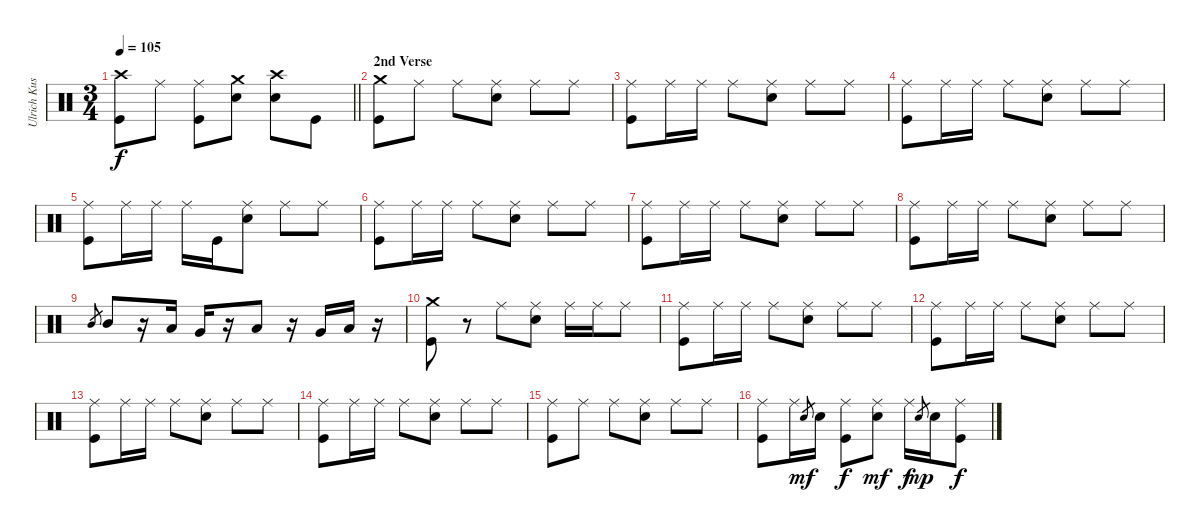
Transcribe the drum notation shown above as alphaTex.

\track ("Ulrich Kusch" "Ulrich Kus") {instrument percussion}
\staff {score}
\articulation defaults
\ts (3 4)
\tempo 105
\clef neutral
\barLineRight lightlight
\ks c
("Crash high (hit)" "Kick (hit)").8{dy f} "Ride (middle)".8 ("Ride (middle)" "Kick (hit)").8 ("Crash medium (hit)" "Electric Snare (hit)").8 ("Crash high (hit)" "Electric Snare (hit)").8 "Kick (hit)".8 |
\section ("" "2nd Verse")
("Crash medium (hit)" "Kick (hit)").8 "Ride (middle)".8 "Ride (middle)".8 ("Ride (middle)" "Electric Snare (hit)").8 "Ride (middle)".8 "Ride (middle)".8 |
("Ride (middle)" "Kick (hit)").8 "Ride (middle)".16 "Ride (middle)".16 "Ride (middle)".8 ("Ride (middle)" "Electric Snare (hit)").8 "Ride (middle)".8 "Ride (middle)".8 |
("Ride (middle)" "Kick (hit)").8 "Ride (middle)".16 "Ride (middle)".16 "Ride (middle)".8 ("Ride (middle)" "Electric Snare (hit)").8 "Ride (middle)".8 "Ride (middle)".8 |
("Ride (middle)" "Kick (hit)").8 "Ride (middle)".16 "Ride (middle)".16 "Ride (middle)".16 "Kick (hit)".16 ("Ride (middle)" "Electric Snare (hit)").8 "Ride (middle)".8 "Ride (middle)".8 |
("Ride (middle)" "Kick (hit)").8 "Ride (middle)".16 "Ride (middle)".16 "Ride (middle)".8 ("Ride (middle)" "Electric Snare (hit)").8 "Ride (middle)".8 "Ride (middle)".8 |
("Ride (middle)" "Kick (hit)").8 "Ride (middle)".16 "Ride (middle)".16 "Ride (middle)".8 ("Ride (middle)" "Electric Snare (hit)").8 "Ride (middle)".8 "Ride (middle)".8 |
("Ride (middle)" "Kick (hit)").8 "Ride (middle)".16 "Ride (middle)".16 "Ride (middle)".8 ("Ride (middle)" "Electric Snare (hit)").8 "Ride (middle)".8 "Ride (middle)".8 |
"Mid Tom (hit)".8{gr} "Mid Tom (hit)".8 r.16 "Low Tom (hit)".16 "Very Low Tom (hit)".16 r.16 "Low Tom (hit)".8 r.16 "Very Low Tom (hit)".16 "Low Floor Tom (hit)".16 r.16 |
("Crash medium (hit)" "Kick (hit)").8 r.8 "Ride (middle)".8 ("Ride (middle)" "Electric Snare (hit)").8 "Ride (middle)".16 "Ride (middle)".16 "Ride (middle)".8 |
("Ride (middle)" "Kick (hit)").8 "Ride (middle)".16 "Ride (middle)".16 "Ride (middle)".8 ("Ride (middle)" "Electric Snare (hit)").8 "Ride (middle)".8 "Ride (middle)".8 |
("Ride (middle)" "Kick (hit)").8 "Ride (middle)".16 "Ride (middle)".16 "Ride (middle)".8 ("Ride (middle)" "Electric Snare (hit)").8 "Ride (middle)".8 "Ride (middle)".8 |
("Ride (middle)" "Kick (hit)").8 "Ride (middle)".16 "Ride (middle)".16 "Ride (middle)".8 ("Ride (middle)" "Electric Snare (hit)").8 "Ride (middle)".8 "Ride (middle)".8 |
("Ride (middle)" "Kick (hit)").8 "Ride (middle)".16 "Ride (middle)".16 "Ride (middle)".8 ("Ride (middle)" "Electric Snare (hit)").8 "Ride (middle)".8 "Ride (middle)".8 |
("Ride (middle)" "Kick (hit)").8 "Ride (middle)".8 "Ride (middle)".8 ("Ride (middle)" "Electric Snare (hit)").8 "Ride (middle)".8 "Ride (middle)".8 |
("Ride (middle)" "Kick (hit)").8 "Ride (middle)".16 "Electric Snare (hit)".8{gr dy mf} "Electric Snare (hit)".16 ("Ride (middle)" "Kick (hit)").8{dy f} ("Ride (middle)" "Electric Snare (hit)").8{dy mf} "Ride (middle)".16{dy f} "Electric Snare (hit)".8{gr dy mp} "Electric Snare (hit)".16 ("Ride (middle)" "Kick (hit)").8{dy f}
